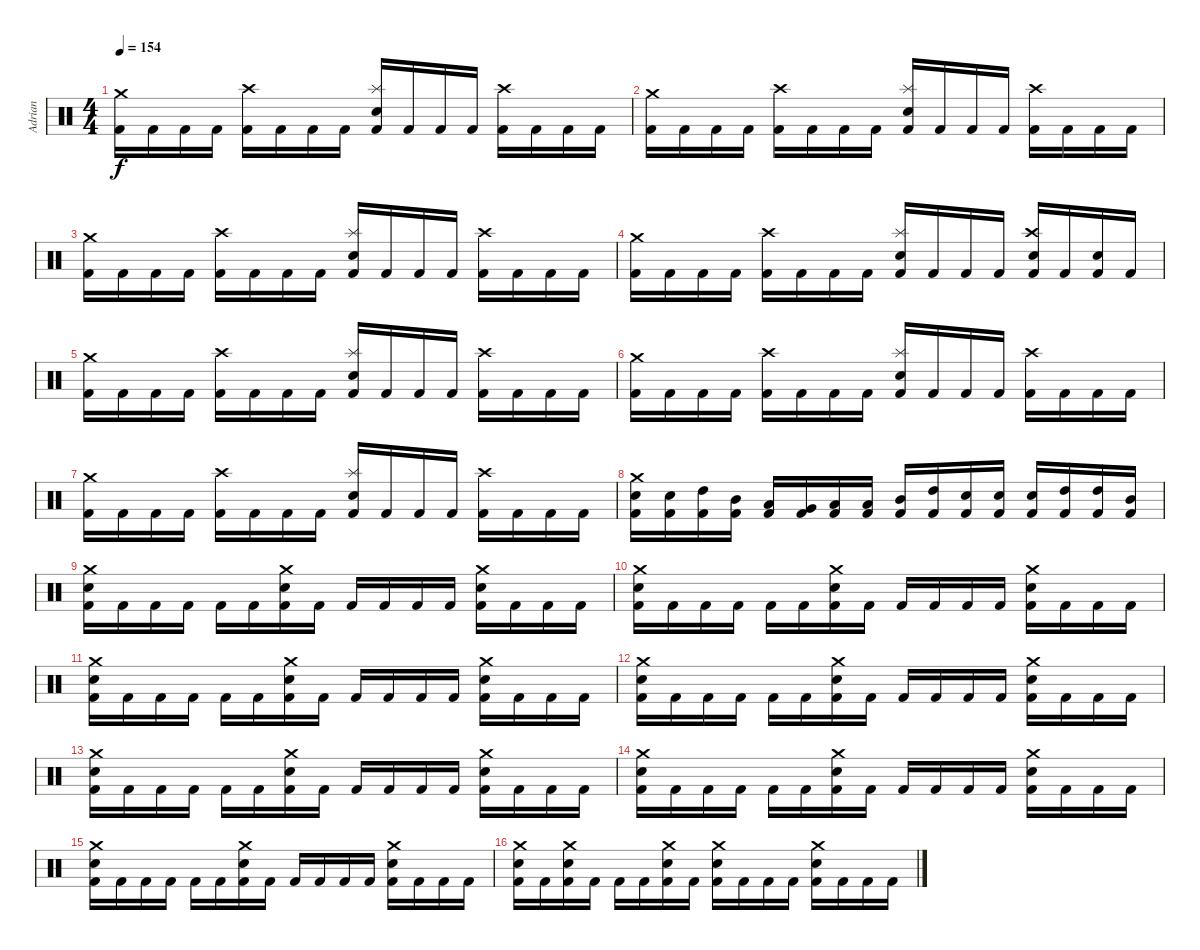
\track ("Adrian" "Adrian") {instrument percussion}
\staff {score}
\articulation defaults
\ts (4 4)
\tempo 154
\clef neutral
\ks c
("Crash medium (hit)" "Kick (hit) 2").16{dy f} "Kick (hit) 2".16 "Kick (hit) 2".16 "Kick (hit) 2".16 ("Crash high (hit)" "Kick (hit) 2").16 "Kick (hit) 2".16 "Kick (hit) 2".16 "Kick (hit) 2".16 ("Splash (hit)" "Electric Snare (hit)" "Kick (hit) 2").16 "Kick (hit) 2".16 "Kick (hit) 2".16 "Kick (hit) 2".16 ("Crash high (hit)" "Kick (hit) 2").16 "Kick (hit) 2".16 "Kick (hit) 2".16 "Kick (hit) 2".16 |
("Crash medium (hit)" "Kick (hit) 2").16 "Kick (hit) 2".16 "Kick (hit) 2".16 "Kick (hit) 2".16 ("Crash high (hit)" "Kick (hit) 2").16 "Kick (hit) 2".16 "Kick (hit) 2".16 "Kick (hit) 2".16 ("Splash (hit)" "Electric Snare (hit)" "Kick (hit) 2").16 "Kick (hit) 2".16 "Kick (hit) 2".16 "Kick (hit) 2".16 ("Crash high (hit)" "Kick (hit) 2").16 "Kick (hit) 2".16 "Kick (hit) 2".16 "Kick (hit) 2".16 |
("Crash medium (hit)" "Kick (hit) 2").16 "Kick (hit) 2".16 "Kick (hit) 2".16 "Kick (hit) 2".16 ("Crash high (hit)" "Kick (hit) 2").16 "Kick (hit) 2".16 "Kick (hit) 2".16 "Kick (hit) 2".16 ("Splash (hit)" "Electric Snare (hit)" "Kick (hit) 2").16 "Kick (hit) 2".16 "Kick (hit) 2".16 "Kick (hit) 2".16 ("Crash high (hit)" "Kick (hit) 2").16 "Kick (hit) 2".16 "Kick (hit) 2".16 "Kick (hit) 2".16 |
("Crash medium (hit)" "Kick (hit) 2").16 "Kick (hit) 2".16 "Kick (hit) 2".16 "Kick (hit) 2".16 ("Crash high (hit)" "Kick (hit) 2").16 "Kick (hit) 2".16 "Kick (hit) 2".16 "Kick (hit) 2".16 ("Splash (hit)" "Electric Snare (hit)" "Kick (hit) 2").16 "Kick (hit) 2".16 "Kick (hit) 2".16 "Kick (hit) 2".16 ("Crash high (hit)" "Electric Snare (hit)" "Kick (hit) 2").16 "Kick (hit) 2".16 ("Electric Snare (hit)" "Kick (hit) 2").16 "Kick (hit) 2".16 |
("Crash medium (hit)" "Kick (hit) 2").16 "Kick (hit) 2".16 "Kick (hit) 2".16 "Kick (hit) 2".16 ("Crash high (hit)" "Kick (hit) 2").16 "Kick (hit) 2".16 "Kick (hit) 2".16 "Kick (hit) 2".16 ("Splash (hit)" "Electric Snare (hit)" "Kick (hit) 2").16 "Kick (hit) 2".16 "Kick (hit) 2".16 "Kick (hit) 2".16 ("Crash high (hit)" "Kick (hit) 2").16 "Kick (hit) 2".16 "Kick (hit) 2".16 "Kick (hit) 2".16 |
("Crash medium (hit)" "Kick (hit) 2").16 "Kick (hit) 2".16 "Kick (hit) 2".16 "Kick (hit) 2".16 ("Crash high (hit)" "Kick (hit) 2").16 "Kick (hit) 2".16 "Kick (hit) 2".16 "Kick (hit) 2".16 ("Splash (hit)" "Electric Snare (hit)" "Kick (hit) 2").16 "Kick (hit) 2".16 "Kick (hit) 2".16 "Kick (hit) 2".16 ("Crash high (hit)" "Kick (hit) 2").16 "Kick (hit) 2".16 "Kick (hit) 2".16 "Kick (hit) 2".16 |
("Crash medium (hit)" "Kick (hit) 2").16 "Kick (hit) 2".16 "Kick (hit) 2".16 "Kick (hit) 2".16 ("Crash high (hit)" "Kick (hit) 2").16 "Kick (hit) 2".16 "Kick (hit) 2".16 "Kick (hit) 2".16 ("Splash (hit)" "Electric Snare (hit)" "Kick (hit) 2").16 "Kick (hit) 2".16 "Kick (hit) 2".16 "Kick (hit) 2".16 ("Crash high (hit)" "Kick (hit) 2").16 "Kick (hit) 2".16 "Kick (hit) 2".16 "Kick (hit) 2".16 |
("Crash medium (hit)" "Electric Snare (hit)" "Kick (hit) 2").16 ("Electric Snare (hit)" "Kick (hit) 2").16 ("High Tom (hit)" "Kick (hit) 2").16 ("Mid Tom (hit)" "Kick (hit) 2").16 ("Low Tom (hit)" "Kick (hit) 2").16 ("Very Low Tom (hit)" "Kick (hit) 2").16 ("Low Floor Tom (hit)" "Kick (hit) 2").16 ("Low Tom (hit)" "Kick (hit) 2").16 ("Mid Tom (hit)" "Kick (hit) 2").16 ("High Tom (hit)" "Kick (hit) 2").16 ("Electric Snare (hit)" "Kick (hit) 2").16 ("Electric Snare (hit)" "Kick (hit) 2").16 ("Electric Snare (hit)" "Kick (hit) 2").16 ("High Tom (hit)" "Kick (hit) 2").16 ("High Tom (hit)" "Kick (hit) 2").16 ("Mid Tom (hit)" "Kick (hit) 2").16 |
("Crash medium (hit)" "Electric Snare (hit)" "Kick (hit) 2").16 "Kick (hit) 2".16 "Kick (hit) 2".16 "Kick (hit) 2".16 "Kick (hit) 2".16 "Kick (hit) 2".16 ("Crash medium (hit)" "Electric Snare (hit)" "Kick (hit) 2").16 "Kick (hit) 2".16 "Kick (hit) 2".16 "Kick (hit) 2".16 "Kick (hit) 2".16 "Kick (hit) 2".16 ("Crash medium (hit)" "Electric Snare (hit)" "Kick (hit) 2").16 "Kick (hit) 2".16 "Kick (hit) 2".16 "Kick (hit) 2".16 |
("Crash medium (hit)" "Electric Snare (hit)" "Kick (hit) 2").16 "Kick (hit) 2".16 "Kick (hit) 2".16 "Kick (hit) 2".16 "Kick (hit) 2".16 "Kick (hit) 2".16 ("Crash medium (hit)" "Electric Snare (hit)" "Kick (hit) 2").16 "Kick (hit) 2".16 "Kick (hit) 2".16 "Kick (hit) 2".16 "Kick (hit) 2".16 "Kick (hit) 2".16 ("Crash medium (hit)" "Electric Snare (hit)" "Kick (hit) 2").16 "Kick (hit) 2".16 "Kick (hit) 2".16 "Kick (hit) 2".16 |
("Crash medium (hit)" "Electric Snare (hit)" "Kick (hit) 2").16 "Kick (hit) 2".16 "Kick (hit) 2".16 "Kick (hit) 2".16 "Kick (hit) 2".16 "Kick (hit) 2".16 ("Crash medium (hit)" "Electric Snare (hit)" "Kick (hit) 2").16 "Kick (hit) 2".16 "Kick (hit) 2".16 "Kick (hit) 2".16 "Kick (hit) 2".16 "Kick (hit) 2".16 ("Crash medium (hit)" "Electric Snare (hit)" "Kick (hit) 2").16 "Kick (hit) 2".16 "Kick (hit) 2".16 "Kick (hit) 2".16 |
("Crash medium (hit)" "Electric Snare (hit)" "Kick (hit) 2").16 "Kick (hit) 2".16 "Kick (hit) 2".16 "Kick (hit) 2".16 "Kick (hit) 2".16 "Kick (hit) 2".16 ("Crash medium (hit)" "Electric Snare (hit)" "Kick (hit) 2").16 "Kick (hit) 2".16 "Kick (hit) 2".16 "Kick (hit) 2".16 "Kick (hit) 2".16 "Kick (hit) 2".16 ("Crash medium (hit)" "Electric Snare (hit)" "Kick (hit) 2").16 "Kick (hit) 2".16 "Kick (hit) 2".16 "Kick (hit) 2".16 |
("Crash medium (hit)" "Electric Snare (hit)" "Kick (hit) 2").16 "Kick (hit) 2".16 "Kick (hit) 2".16 "Kick (hit) 2".16 "Kick (hit) 2".16 "Kick (hit) 2".16 ("Crash medium (hit)" "Electric Snare (hit)" "Kick (hit) 2").16 "Kick (hit) 2".16 "Kick (hit) 2".16 "Kick (hit) 2".16 "Kick (hit) 2".16 "Kick (hit) 2".16 ("Crash medium (hit)" "Electric Snare (hit)" "Kick (hit) 2").16 "Kick (hit) 2".16 "Kick (hit) 2".16 "Kick (hit) 2".16 |
("Crash medium (hit)" "Electric Snare (hit)" "Kick (hit) 2").16 "Kick (hit) 2".16 "Kick (hit) 2".16 "Kick (hit) 2".16 "Kick (hit) 2".16 "Kick (hit) 2".16 ("Crash medium (hit)" "Electric Snare (hit)" "Kick (hit) 2").16 "Kick (hit) 2".16 "Kick (hit) 2".16 "Kick (hit) 2".16 "Kick (hit) 2".16 "Kick (hit) 2".16 ("Crash medium (hit)" "Electric Snare (hit)" "Kick (hit) 2").16 "Kick (hit) 2".16 "Kick (hit) 2".16 "Kick (hit) 2".16 |
("Crash medium (hit)" "Electric Snare (hit)" "Kick (hit) 2").16 "Kick (hit) 2".16 "Kick (hit) 2".16 "Kick (hit) 2".16 "Kick (hit) 2".16 "Kick (hit) 2".16 ("Crash medium (hit)" "Electric Snare (hit)" "Kick (hit) 2").16 "Kick (hit) 2".16 "Kick (hit) 2".16 "Kick (hit) 2".16 "Kick (hit) 2".16 "Kick (hit) 2".16 ("Crash medium (hit)" "Electric Snare (hit)" "Kick (hit) 2").16 "Kick (hit) 2".16 "Kick (hit) 2".16 "Kick (hit) 2".16 |
("Crash medium (hit)" "Electric Snare (hit)" "Kick (hit) 2").16 "Kick (hit) 2".16 ("Crash medium (hit)" "Electric Snare (hit)" "Kick (hit) 2").16 "Kick (hit) 2".16 "Kick (hit) 2".16 "Kick (hit) 2".16 ("Crash medium (hit)" "Electric Snare (hit)" "Kick (hit) 2").16 "Kick (hit) 2".16 ("Crash medium (hit)" "Electric Snare (hit)" "Kick (hit) 2").16 "Kick (hit) 2".16 "Kick (hit) 2".16 "Kick (hit) 2".16 ("Crash medium (hit)" "Electric Snare (hit)" "Kick (hit) 2").16 "Kick (hit) 2".16 "Kick (hit) 2".16 "Kick (hit) 2".16
